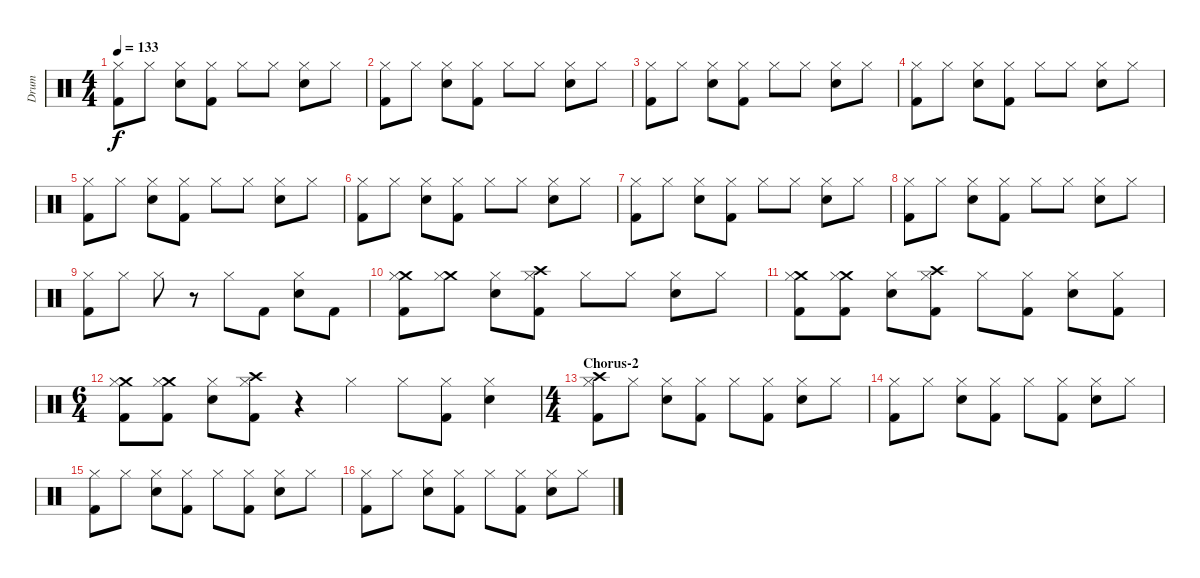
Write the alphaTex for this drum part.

\track ("Drum" "Drum") {instrument percussion}
\staff {score}
\articulation defaults
\ts (4 4)
\tempo 133
\clef neutral
\ks c
("Hi-Hat (closed)" "Kick (hit) 2").8{dy f} "Hi-Hat (closed)".8 ("Snare (hit) 2" "Hi-Hat (closed)").8 ("Hi-Hat (closed)" "Kick (hit) 2").8 "Hi-Hat (closed)".8 "Hi-Hat (closed)".8 ("Snare (hit) 2" "Hi-Hat (closed)").8 "Hi-Hat (closed)".8 |
("Hi-Hat (closed)" "Kick (hit) 2").8 "Hi-Hat (closed)".8 ("Snare (hit) 2" "Hi-Hat (closed)").8 ("Hi-Hat (closed)" "Kick (hit) 2").8 "Hi-Hat (closed)".8 "Hi-Hat (closed)".8 ("Snare (hit) 2" "Hi-Hat (closed)").8 "Hi-Hat (closed)".8 |
("Hi-Hat (closed)" "Kick (hit) 2").8 "Hi-Hat (closed)".8 ("Snare (hit) 2" "Hi-Hat (closed)").8 ("Hi-Hat (closed)" "Kick (hit) 2").8 "Hi-Hat (closed)".8 "Hi-Hat (closed)".8 ("Snare (hit) 2" "Hi-Hat (closed)").8 "Hi-Hat (closed)".8 |
("Hi-Hat (closed)" "Kick (hit) 2").8 "Hi-Hat (closed)".8 ("Snare (hit) 2" "Hi-Hat (closed)").8 ("Hi-Hat (closed)" "Kick (hit) 2").8 "Hi-Hat (closed)".8 "Hi-Hat (closed)".8 ("Snare (hit) 2" "Hi-Hat (closed)").8 "Hi-Hat (closed)".8 |
("Hi-Hat (closed)" "Kick (hit) 2").8 "Hi-Hat (closed)".8 ("Snare (hit) 2" "Hi-Hat (closed)").8 ("Hi-Hat (closed)" "Kick (hit) 2").8 "Hi-Hat (closed)".8 "Hi-Hat (closed)".8 ("Snare (hit) 2" "Hi-Hat (closed)").8 "Hi-Hat (closed)".8 |
("Hi-Hat (closed)" "Kick (hit) 2").8 "Hi-Hat (closed)".8 ("Snare (hit) 2" "Hi-Hat (closed)").8 ("Hi-Hat (closed)" "Kick (hit) 2").8 "Hi-Hat (closed)".8 "Hi-Hat (closed)".8 ("Snare (hit) 2" "Hi-Hat (closed)").8 "Hi-Hat (closed)".8 |
("Hi-Hat (closed)" "Kick (hit) 2").8 "Hi-Hat (closed)".8 ("Snare (hit) 2" "Hi-Hat (closed)").8 ("Hi-Hat (closed)" "Kick (hit) 2").8 "Hi-Hat (closed)".8 "Hi-Hat (closed)".8 ("Snare (hit) 2" "Hi-Hat (closed)").8 "Hi-Hat (closed)".8 |
("Hi-Hat (closed)" "Kick (hit) 2").8 "Hi-Hat (closed)".8 ("Snare (hit) 2" "Hi-Hat (closed)").8 ("Hi-Hat (closed)" "Kick (hit) 2").8 "Hi-Hat (closed)".8 "Hi-Hat (closed)".8 ("Snare (hit) 2" "Hi-Hat (closed)").8 "Hi-Hat (closed)".8 |
("Hi-Hat (closed)" "Kick (hit) 2").8 "Hi-Hat (closed)".8 "Hi-Hat (closed)".8 r.8 "Hi-Hat (closed)".8 "Kick (hit) 2".8 ("Snare (hit) 2" "Hi-Hat (closed)").8 "Kick (hit) 2".8 |
("Crash medium (hit)" "Hi-Hat (closed)" "Kick (hit) 2").8 ("Crash medium (hit)" "Hi-Hat (closed)").8 ("Snare (hit) 2" "Hi-Hat (closed)").8 ("Crash high (hit)" "Hi-Hat (closed)" "Kick (hit) 2").8 "Hi-Hat (closed)".8 "Hi-Hat (closed)".8 ("Snare (hit) 2" "Hi-Hat (closed)").8 "Hi-Hat (closed)".8 |
("Crash medium (hit)" "Hi-Hat (closed)" "Kick (hit) 2").8 ("Crash medium (hit)" "Hi-Hat (closed)" "Kick (hit) 2").8 ("Snare (hit) 2" "Hi-Hat (closed)").8 ("Crash high (hit)" "Hi-Hat (closed)" "Kick (hit) 2").8 "Hi-Hat (closed)".8 ("Hi-Hat (closed)" "Kick (hit) 2").8 ("Snare (hit) 2" "Hi-Hat (closed)").8 ("Hi-Hat (closed)" "Kick (hit) 2").8 |
\ts (6 4)
("Crash medium (hit)" "Hi-Hat (closed)" "Kick (hit) 2").8 ("Crash medium (hit)" "Hi-Hat (closed)" "Kick (hit) 2").8 ("Snare (hit) 2" "Hi-Hat (closed)").8 ("Crash high (hit)" "Hi-Hat (closed)" "Kick (hit) 2").8 r.4 "Hi-Hat (closed)".4 "Hi-Hat (closed)".8 ("Hi-Hat (closed)" "Kick (hit) 2").8 ("Snare (hit) 2" "Hi-Hat (closed)").4 |
\ts (4 4)
\section ("" "Chorus-2")
("Crash high (hit)" "Hi-Hat (closed)" "Kick (hit) 2").8 "Hi-Hat (closed)".8 ("Snare (hit) 2" "Hi-Hat (closed)").8 ("Hi-Hat (closed)" "Kick (hit) 2").8 "Hi-Hat (closed)".8 ("Hi-Hat (closed)" "Kick (hit) 2").8 ("Snare (hit) 2" "Hi-Hat (closed)").8 "Hi-Hat (closed)".8 |
("Hi-Hat (closed)" "Kick (hit) 2").8 "Hi-Hat (closed)".8 ("Snare (hit) 2" "Hi-Hat (closed)").8 ("Hi-Hat (closed)" "Kick (hit) 2").8 "Hi-Hat (closed)".8 ("Hi-Hat (closed)" "Kick (hit) 2").8 ("Snare (hit) 2" "Hi-Hat (closed)").8 "Hi-Hat (closed)".8 |
("Hi-Hat (closed)" "Kick (hit) 2").8 "Hi-Hat (closed)".8 ("Snare (hit) 2" "Hi-Hat (closed)").8 ("Hi-Hat (closed)" "Kick (hit) 2").8 "Hi-Hat (closed)".8 ("Hi-Hat (closed)" "Kick (hit) 2").8 ("Snare (hit) 2" "Hi-Hat (closed)").8 "Hi-Hat (closed)".8 |
("Hi-Hat (closed)" "Kick (hit) 2").8 "Hi-Hat (closed)".8 ("Snare (hit) 2" "Hi-Hat (closed)").8 ("Hi-Hat (closed)" "Kick (hit) 2").8 "Hi-Hat (closed)".8 ("Hi-Hat (closed)" "Kick (hit) 2").8 ("Snare (hit) 2" "Hi-Hat (closed)").8 "Hi-Hat (closed)".8
